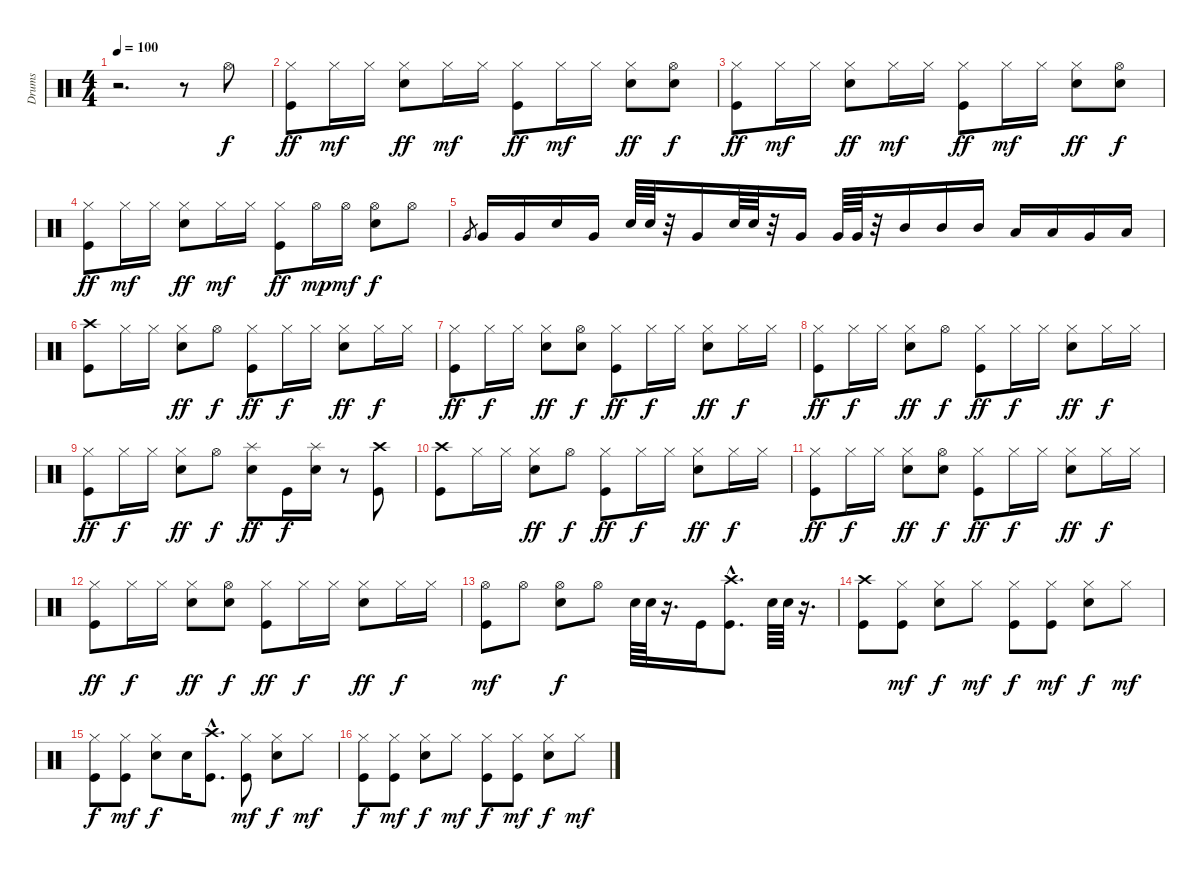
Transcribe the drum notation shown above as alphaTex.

\track ("Drums" "Drums") {instrument percussion}
\staff {score}
\articulation defaults
\ts (4 4)
\tempo 100
\clef neutral
\ks c
r.2{d dy f} r.8 "Hi-Hat (open)".8 |
("Hi-Hat (closed)" "Kick (hit)").8{dy ff} "Hi-Hat (closed)".16{dy mf} "Hi-Hat (closed)".16 ("Hi-Hat (closed)" "Snare (hit) 2").8{dy ff} "Hi-Hat (closed)".16{dy mf} "Hi-Hat (closed)".16 ("Hi-Hat (closed)" "Kick (hit)").8{dy ff} "Hi-Hat (closed)".16{dy mf} "Hi-Hat (closed)".16 ("Hi-Hat (closed)" "Snare (hit) 2").8{dy ff} ("Hi-Hat (open)" "Snare (hit) 2").8{dy f} |
("Hi-Hat (closed)" "Kick (hit)").8{dy ff} "Hi-Hat (closed)".16{dy mf} "Hi-Hat (closed)".16 ("Hi-Hat (closed)" "Snare (hit) 2").8{dy ff} "Hi-Hat (closed)".16{dy mf} "Hi-Hat (closed)".16 ("Hi-Hat (closed)" "Kick (hit)").8{dy ff} "Hi-Hat (closed)".16{dy mf} "Hi-Hat (closed)".16 ("Hi-Hat (closed)" "Snare (hit) 2").8{dy ff} ("Hi-Hat (open)" "Snare (hit) 2").8{dy f} |
("Hi-Hat (closed)" "Kick (hit)").8{dy ff} "Hi-Hat (closed)".16{dy mf} "Hi-Hat (closed)".16 ("Hi-Hat (closed)" "Snare (hit) 2").8{dy ff} "Hi-Hat (closed)".16{dy mf} "Hi-Hat (closed)".16 ("Hi-Hat (closed)" "Kick (hit)").8{dy ff} "Hi-Hat (open)".16{dy mp} "Hi-Hat (open)".16{dy mf} ("Hi-Hat (open)" "Snare (hit) 2").8{dy f} "Hi-Hat (open)".8 |
"Very Low Tom (hit)".8{gr} "Very Low Tom (hit)".16 "Very Low Tom (hit)".16 "Snare (hit) 2".16 "Very Low Tom (hit)".16 "Snare (hit) 2".64 "Snare (hit) 2".64 r.32 "Very Low Tom (hit)".16 "Snare (hit) 2".64 "Snare (hit) 2".64 r.32 "Very Low Tom (hit)".16 "Very Low Tom (hit)".64 "Very Low Tom (hit)".64 r.32 "Mid Tom (hit)".16 "Mid Tom (hit)".16 "Mid Tom (hit)".16 "Low Tom (hit)".16 "Low Tom (hit)".16 "Very Low Tom (hit)".16 "Low Floor Tom (hit)".16 |
("Crash high (hit)" "Kick (hit)").8 "Hi-Hat (closed)".16 "Hi-Hat (closed)".16 ("Hi-Hat (closed)" "Snare (hit) 2").8{dy ff} "Hi-Hat (open)".8{dy f} ("Hi-Hat (closed)" "Kick (hit)").8{dy ff} "Hi-Hat (closed)".16{dy f} "Hi-Hat (closed)".16 ("Hi-Hat (closed)" "Snare (hit) 2").8{dy ff} "Hi-Hat (closed)".16{dy f} "Hi-Hat (closed)".16 |
("Hi-Hat (closed)" "Kick (hit)").8{dy ff} "Hi-Hat (closed)".16{dy f} "Hi-Hat (closed)".16 ("Hi-Hat (closed)" "Snare (hit) 2").8{dy ff} ("Hi-Hat (open)" "Snare (hit) 2").8{dy f} ("Hi-Hat (closed)" "Kick (hit)").8{dy ff} "Hi-Hat (closed)".16{dy f} "Hi-Hat (closed)".16 ("Hi-Hat (closed)" "Snare (hit) 2").8{dy ff} "Hi-Hat (closed)".16{dy f} "Hi-Hat (closed)".16 |
("Hi-Hat (closed)" "Kick (hit)").8{dy ff} "Hi-Hat (closed)".16{dy f} "Hi-Hat (closed)".16 ("Hi-Hat (closed)" "Snare (hit) 2").8{dy ff} "Hi-Hat (open)".8{dy f} ("Hi-Hat (closed)" "Kick (hit)").8{dy ff} "Hi-Hat (closed)".16{dy f} "Hi-Hat (closed)".16 ("Hi-Hat (closed)" "Snare (hit) 2").8{dy ff} "Hi-Hat (closed)".16{dy f} "Hi-Hat (closed)".16 |
("Hi-Hat (closed)" "Kick (hit)").8{dy ff} "Hi-Hat (closed)".16{dy f} "Hi-Hat (closed)".16 ("Hi-Hat (closed)" "Snare (hit) 2").8{dy ff} "Hi-Hat (open)".8{dy f} ("Splash (hit)" "Snare (hit) 2").8{dy ff} "Kick (hit)".16{dy f} ("Splash (hit)" "Snare (hit) 2").16 r.8 ("Crash high (hit)" "Kick (hit)").8 |
("Crash high (hit)" "Kick (hit)").8 "Hi-Hat (closed)".16 "Hi-Hat (closed)".16 ("Hi-Hat (closed)" "Snare (hit) 2").8{dy ff} "Hi-Hat (open)".8{dy f} ("Hi-Hat (closed)" "Kick (hit)").8{dy ff} "Hi-Hat (closed)".16{dy f} "Hi-Hat (closed)".16 ("Hi-Hat (closed)" "Snare (hit) 2").8{dy ff} "Hi-Hat (closed)".16{dy f} "Hi-Hat (closed)".16 |
("Hi-Hat (closed)" "Kick (hit)").8{dy ff} "Hi-Hat (closed)".16{dy f} "Hi-Hat (closed)".16 ("Hi-Hat (closed)" "Snare (hit) 2").8{dy ff} ("Hi-Hat (open)" "Snare (hit) 2").8{dy f} ("Hi-Hat (closed)" "Kick (hit)").8{dy ff} "Hi-Hat (closed)".16{dy f} "Hi-Hat (closed)".16 ("Hi-Hat (closed)" "Snare (hit) 2").8{dy ff} "Hi-Hat (closed)".16{dy f} "Hi-Hat (closed)".16 |
("Hi-Hat (closed)" "Kick (hit)").8{dy ff} "Hi-Hat (closed)".16{dy f} "Hi-Hat (closed)".16 ("Hi-Hat (closed)" "Snare (hit) 2").8{dy ff} ("Hi-Hat (open)" "Snare (hit) 2").8{dy f} ("Hi-Hat (closed)" "Kick (hit)").8{dy ff} "Hi-Hat (closed)".16{dy f} "Hi-Hat (closed)".16 ("Hi-Hat (closed)" "Snare (hit) 2").8{dy ff} "Hi-Hat (closed)".16{dy f} "Hi-Hat (closed)".16 |
("Hi-Hat (open)" "Kick (hit)").8{dy mf} "Hi-Hat (open)".8 ("Hi-Hat (open)" "Snare (hit) 2").8{dy f} "Hi-Hat (open)".8 "Snare (hit) 2".64 "Snare (hit) 2".64 r.16{d} "Kick (hit)".16 ("Crash high (hit)"{hac} "Kick (hit)"{hac}).8{d} "Snare (hit) 2".64 "Snare (hit) 2".64 r.16{d} |
("Crash high (hit)" "Kick (hit)").8 ("Hi-Hat (closed)" "Kick (hit)").8{dy mf} ("Hi-Hat (closed)" "Snare (hit) 2").8{dy f} "Hi-Hat (closed)".8{dy mf} ("Hi-Hat (closed)" "Kick (hit)").8{dy f} ("Hi-Hat (closed)" "Kick (hit)").8{dy mf} ("Hi-Hat (closed)" "Snare (hit) 2").8{dy f} "Hi-Hat (closed)".8{dy mf} |
("Hi-Hat (closed)" "Kick (hit)").8{dy f} ("Hi-Hat (closed)" "Kick (hit)").8{dy mf} ("Hi-Hat (closed)" "Snare (hit) 2").8{dy f} "Snare (hit) 2".16 ("Crash high (hit)"{hac} "Kick (hit)"{hac}).8{d} ("Hi-Hat (closed)" "Kick (hit)").8{dy mf} ("Hi-Hat (closed)" "Snare (hit) 2").8{dy f} "Hi-Hat (closed)".8{dy mf} |
("Hi-Hat (closed)" "Kick (hit)").8{dy f} ("Hi-Hat (closed)" "Kick (hit)").8{dy mf} ("Hi-Hat (closed)" "Snare (hit) 2").8{dy f} "Hi-Hat (closed)".8{dy mf} ("Hi-Hat (closed)" "Kick (hit)").8{dy f} ("Hi-Hat (closed)" "Kick (hit)").8{dy mf} ("Hi-Hat (closed)" "Snare (hit) 2").8{dy f} "Hi-Hat (closed)".8{dy mf}
